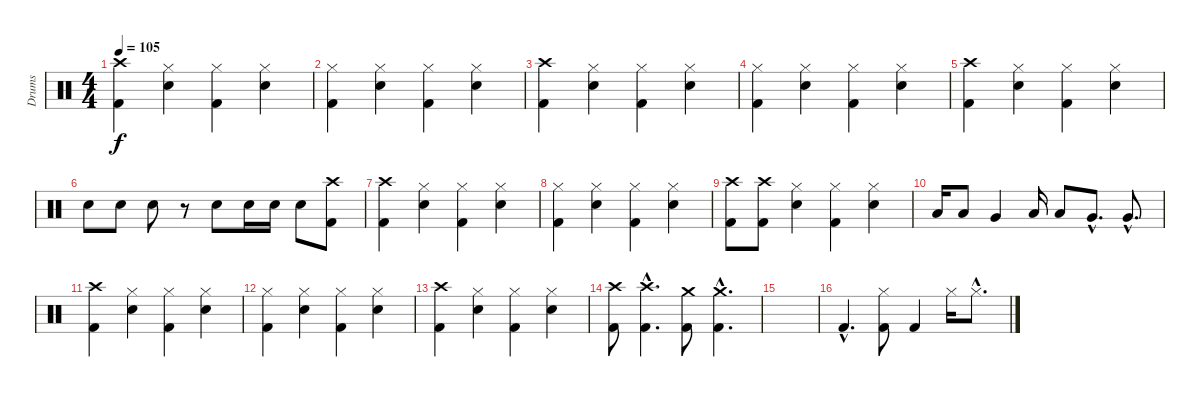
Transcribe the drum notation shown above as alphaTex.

\track ("Drums" "Drums") {instrument percussion}
\staff {score}
\articulation defaults
\ts (4 4)
\tempo 105
\clef neutral
\ks c
("Kick (hit) 2" "Crash high (hit)").4{dy f} ("Snare (hit) 2" "Hi-Hat (closed)").4 ("Kick (hit) 2" "Hi-Hat (closed)").4 ("Snare (hit) 2" "Hi-Hat (closed)").4 |
("Kick (hit) 2" "Hi-Hat (closed)").4 ("Snare (hit) 2" "Hi-Hat (closed)").4 ("Kick (hit) 2" "Hi-Hat (closed)").4 ("Snare (hit) 2" "Hi-Hat (closed)").4 |
("Kick (hit) 2" "Crash high (hit)").4 ("Snare (hit) 2" "Hi-Hat (closed)").4 ("Kick (hit) 2" "Hi-Hat (closed)").4 ("Snare (hit) 2" "Hi-Hat (closed)").4 |
("Kick (hit) 2" "Hi-Hat (closed)").4 ("Snare (hit) 2" "Hi-Hat (closed)").4 ("Kick (hit) 2" "Hi-Hat (closed)").4 ("Snare (hit) 2" "Hi-Hat (closed)").4 |
("Kick (hit) 2" "Crash high (hit)").4 ("Snare (hit) 2" "Hi-Hat (closed)").4 ("Kick (hit) 2" "Hi-Hat (closed)").4 ("Snare (hit) 2" "Hi-Hat (closed)").4 |
"Snare (hit) 2".8 "Snare (hit) 2".8 "Snare (hit) 2".8 r.8 "Snare (hit) 2".8 "Snare (hit) 2".16 "Snare (hit) 2".16 "Snare (hit) 2".8 ("Kick (hit) 2" "Crash high (hit)").8 |
("Kick (hit) 2" "Crash high (hit)").4 ("Snare (hit) 2" "Hi-Hat (closed)").4 ("Kick (hit) 2" "Hi-Hat (closed)").4 ("Snare (hit) 2" "Hi-Hat (closed)").4 |
("Kick (hit) 2" "Hi-Hat (closed)").4 ("Snare (hit) 2" "Hi-Hat (closed)").4 ("Kick (hit) 2" "Hi-Hat (closed)").4 ("Snare (hit) 2" "Hi-Hat (closed)").4 |
("Kick (hit) 2" "Crash high (hit)").8 ("Kick (hit) 2" "Crash high (hit)").8 ("Snare (hit) 2" "Hi-Hat (closed)").4 ("Kick (hit) 2" "Hi-Hat (closed)").4 ("Snare (hit) 2" "Hi-Hat (closed)").4 |
"Low Tom (hit)".16{volume 16} "Low Tom (hit)".8 "Very Low Tom (hit)".4 "Low Tom (hit)".16 "Low Tom (hit)".8 "Very Low Tom (hit)"{hac}.8{d} "Very Low Tom (hit)"{hac}.8{d} |
("Kick (hit) 2" "Crash high (hit)").4{volume 13} ("Snare (hit) 2" "Hi-Hat (closed)").4 ("Kick (hit) 2" "Hi-Hat (closed)").4 ("Snare (hit) 2" "Hi-Hat (closed)").4 |
("Kick (hit) 2" "Hi-Hat (closed)").4 ("Snare (hit) 2" "Hi-Hat (closed)").4 ("Kick (hit) 2" "Hi-Hat (closed)").4 ("Snare (hit) 2" "Hi-Hat (closed)").4 |
("Kick (hit) 2" "Crash high (hit)").4 ("Snare (hit) 2" "Hi-Hat (closed)").4 ("Kick (hit) 2" "Hi-Hat (closed)").4 ("Snare (hit) 2" "Hi-Hat (closed)").4 |
("Kick (hit) 2" "Crash high (hit)").8 ("Kick (hit) 2"{hac} "Crash high (hit)"{hac}).4{d} ("Kick (hit) 2" "Crash medium (hit)").8 ("Kick (hit) 2"{hac} "Crash medium (hit)"{hac}).4{d} |
|
"Kick (hit) 2"{hac}.4{d} ("Kick (hit) 2" "Hi-Hat (closed)").8 "Kick (hit) 2".4 "Hi-Hat (closed)".16 "Hi-Hat (closed)"{hac}.8{d}
